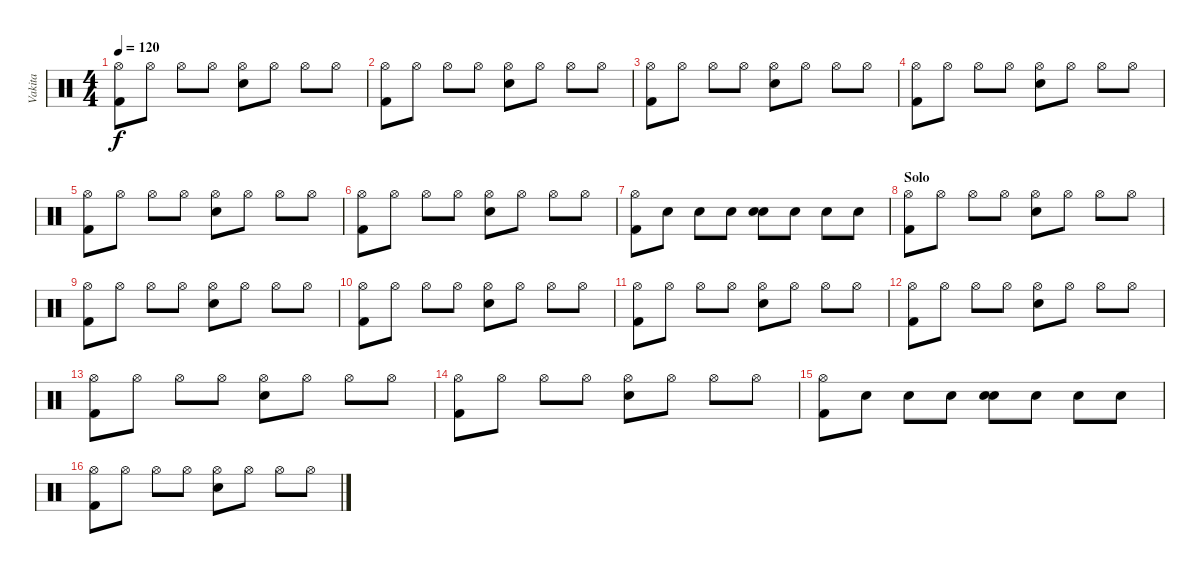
\track ("Vakita" "Vakita") {instrument percussion}
\staff {score}
\articulation defaults
\ts (4 4)
\tempo 120
\clef neutral
\ks c
("Hi-Hat (open)" "Kick (hit) 2").8{dy f} "Hi-Hat (open)".8 "Hi-Hat (open)".8 "Hi-Hat (open)".8 ("Hi-Hat (open)" "Snare (hit) 2").8 "Hi-Hat (open)".8 "Hi-Hat (open)".8 "Hi-Hat (open)".8 |
("Hi-Hat (open)" "Kick (hit) 2").8 "Hi-Hat (open)".8 "Hi-Hat (open)".8 "Hi-Hat (open)".8 ("Hi-Hat (open)" "Snare (hit) 2").8 "Hi-Hat (open)".8 "Hi-Hat (open)".8 "Hi-Hat (open)".8 |
("Hi-Hat (open)" "Kick (hit) 2").8 "Hi-Hat (open)".8 "Hi-Hat (open)".8 "Hi-Hat (open)".8 ("Hi-Hat (open)" "Snare (hit) 2").8 "Hi-Hat (open)".8 "Hi-Hat (open)".8 "Hi-Hat (open)".8 |
("Hi-Hat (open)" "Kick (hit) 2").8 "Hi-Hat (open)".8 "Hi-Hat (open)".8 "Hi-Hat (open)".8 ("Hi-Hat (open)" "Snare (hit) 2").8 "Hi-Hat (open)".8 "Hi-Hat (open)".8 "Hi-Hat (open)".8 |
("Hi-Hat (open)" "Kick (hit) 2").8 "Hi-Hat (open)".8 "Hi-Hat (open)".8 "Hi-Hat (open)".8 ("Hi-Hat (open)" "Snare (hit) 2").8 "Hi-Hat (open)".8 "Hi-Hat (open)".8 "Hi-Hat (open)".8 |
("Hi-Hat (open)" "Kick (hit) 2").8 "Hi-Hat (open)".8 "Hi-Hat (open)".8 "Hi-Hat (open)".8 ("Hi-Hat (open)" "Snare (hit) 2").8 "Hi-Hat (open)".8 "Hi-Hat (open)".8 "Hi-Hat (open)".8 |
("Hi-Hat (open)" "Kick (hit) 2").8 "Snare (hit) 2".8 "Snare (hit) 2".8 "Snare (hit) 2".8 ("Snare (hit) 2" "Snare (hit) 2").8 "Snare (hit) 2".8 "Snare (hit) 2".8 "Snare (hit) 2".8 |
\section ("" "Solo")
("Hi-Hat (open)" "Kick (hit) 2").8 "Hi-Hat (open)".8 "Hi-Hat (open)".8 "Hi-Hat (open)".8 ("Hi-Hat (open)" "Snare (hit) 2").8 "Hi-Hat (open)".8 "Hi-Hat (open)".8 "Hi-Hat (open)".8 |
("Hi-Hat (open)" "Kick (hit) 2").8 "Hi-Hat (open)".8 "Hi-Hat (open)".8 "Hi-Hat (open)".8 ("Hi-Hat (open)" "Snare (hit) 2").8 "Hi-Hat (open)".8 "Hi-Hat (open)".8 "Hi-Hat (open)".8 |
("Hi-Hat (open)" "Kick (hit) 2").8 "Hi-Hat (open)".8 "Hi-Hat (open)".8 "Hi-Hat (open)".8 ("Hi-Hat (open)" "Snare (hit) 2").8 "Hi-Hat (open)".8 "Hi-Hat (open)".8 "Hi-Hat (open)".8 |
("Hi-Hat (open)" "Kick (hit) 2").8 "Hi-Hat (open)".8 "Hi-Hat (open)".8 "Hi-Hat (open)".8 ("Hi-Hat (open)" "Snare (hit) 2").8 "Hi-Hat (open)".8 "Hi-Hat (open)".8 "Hi-Hat (open)".8 |
("Hi-Hat (open)" "Kick (hit) 2").8 "Hi-Hat (open)".8 "Hi-Hat (open)".8 "Hi-Hat (open)".8 ("Hi-Hat (open)" "Snare (hit) 2").8 "Hi-Hat (open)".8 "Hi-Hat (open)".8 "Hi-Hat (open)".8 |
("Hi-Hat (open)" "Kick (hit) 2").8 "Hi-Hat (open)".8 "Hi-Hat (open)".8 "Hi-Hat (open)".8 ("Hi-Hat (open)" "Snare (hit) 2").8 "Hi-Hat (open)".8 "Hi-Hat (open)".8 "Hi-Hat (open)".8 |
("Hi-Hat (open)" "Kick (hit) 2").8 "Hi-Hat (open)".8 "Hi-Hat (open)".8 "Hi-Hat (open)".8 ("Hi-Hat (open)" "Snare (hit) 2").8 "Hi-Hat (open)".8 "Hi-Hat (open)".8 "Hi-Hat (open)".8 |
("Hi-Hat (open)" "Kick (hit) 2").8 "Snare (hit) 2".8 "Snare (hit) 2".8 "Snare (hit) 2".8 ("Snare (hit) 2" "Snare (hit) 2").8 "Snare (hit) 2".8 "Snare (hit) 2".8 "Snare (hit) 2".8 |
("Hi-Hat (open)" "Kick (hit) 2").8 "Hi-Hat (open)".8 "Hi-Hat (open)".8 "Hi-Hat (open)".8 ("Hi-Hat (open)" "Snare (hit) 2").8 "Hi-Hat (open)".8 "Hi-Hat (open)".8 "Hi-Hat (open)".8
